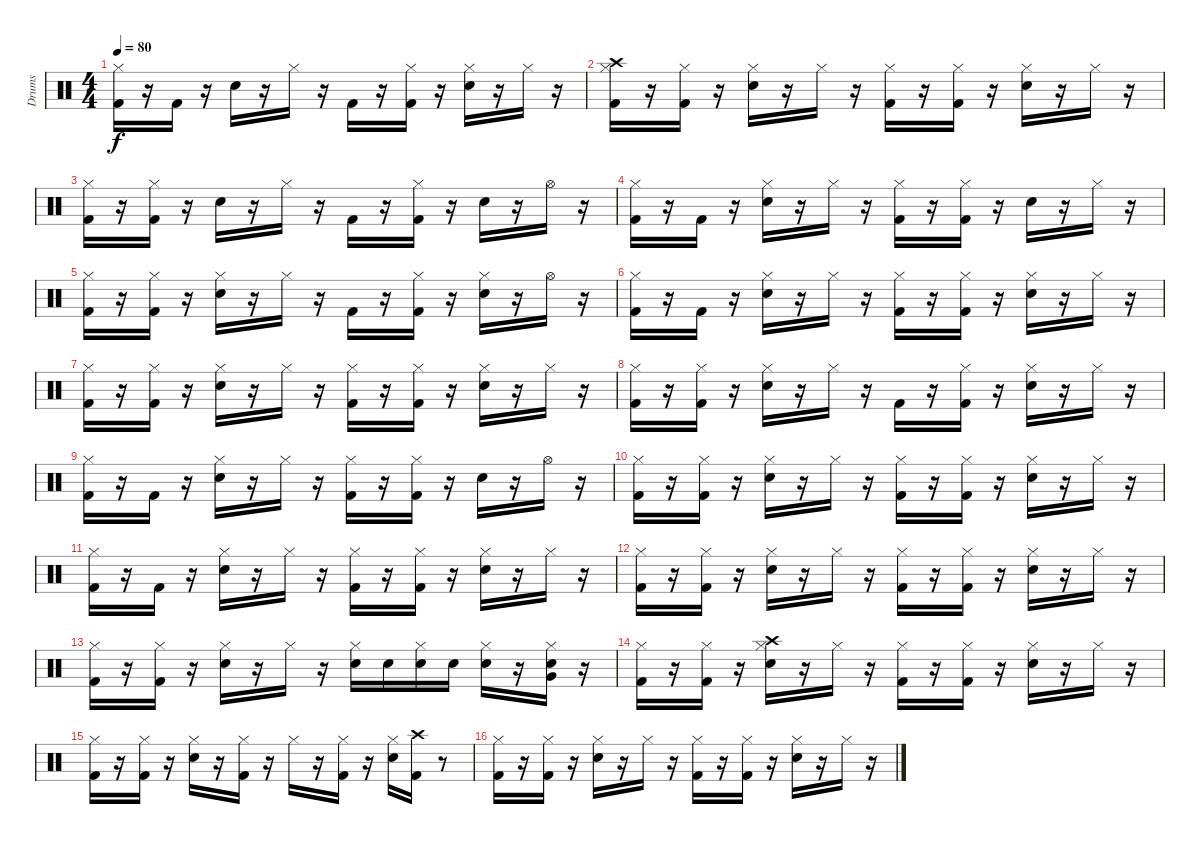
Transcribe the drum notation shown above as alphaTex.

\track ("Drums" "Drums") {instrument percussion}
\staff {score}
\articulation defaults
\ts (4 4)
\tempo 80
\clef neutral
\ks c
("Kick (hit) 2" "Hi-Hat (closed)").16{dy f} r.16 "Kick (hit) 2".16 r.16 "Snare (hit) 2".16 r.16 "Hi-Hat (closed)".16 r.16 "Kick (hit) 2".16 r.16 ("Kick (hit) 2" "Hi-Hat (closed)").16 r.16 ("Snare (hit) 2" "Hi-Hat (closed)").16 r.16 "Hi-Hat (closed)".16 r.16 |
("Kick (hit) 2" "Hi-Hat (closed)" "Crash high (hit)").16 r.16 ("Kick (hit) 2" "Hi-Hat (closed)").16 r.16 ("Snare (hit) 2" "Hi-Hat (closed)").16 r.16 "Hi-Hat (closed)".16 r.16 ("Kick (hit) 2" "Hi-Hat (closed)").16 r.16 ("Kick (hit) 2" "Hi-Hat (closed)").16 r.16 ("Snare (hit) 2" "Hi-Hat (closed)").16 r.16 "Hi-Hat (closed)".16 r.16 |
("Kick (hit) 2" "Hi-Hat (closed)").16 r.16 ("Kick (hit) 2" "Hi-Hat (closed)").16 r.16 "Snare (hit) 2".16 r.16 "Hi-Hat (closed)".16 r.16 "Kick (hit) 2".16 r.16 ("Kick (hit) 2" "Hi-Hat (closed)").16 r.16 "Snare (hit) 2".16 r.16 "Hi-Hat (open)".16 r.16 |
("Kick (hit) 2" "Hi-Hat (closed)").16 r.16 "Kick (hit) 2".16 r.16 ("Snare (hit) 2" "Hi-Hat (closed)").16 r.16 "Hi-Hat (closed)".16 r.16 ("Kick (hit) 2" "Hi-Hat (closed)").16 r.16 ("Kick (hit) 2" "Hi-Hat (closed)").16 r.16 "Snare (hit) 2".16 r.16 "Hi-Hat (closed)".16 r.16 |
("Kick (hit) 2" "Hi-Hat (closed)").16 r.16 ("Kick (hit) 2" "Hi-Hat (closed)").16 r.16 ("Snare (hit) 2" "Hi-Hat (closed)").16 r.16 "Hi-Hat (closed)".16 r.16 "Kick (hit) 2".16 r.16 ("Kick (hit) 2" "Hi-Hat (closed)").16 r.16 ("Snare (hit) 2" "Hi-Hat (closed)").16 r.16 "Hi-Hat (open)".16 r.16 |
("Kick (hit) 2" "Hi-Hat (closed)").16 r.16 "Kick (hit) 2".16 r.16 ("Snare (hit) 2" "Hi-Hat (closed)").16 r.16 "Hi-Hat (closed)".16 r.16 ("Kick (hit) 2" "Hi-Hat (closed)").16 r.16 ("Kick (hit) 2" "Hi-Hat (closed)").16 r.16 ("Snare (hit) 2" "Hi-Hat (closed)").16 r.16 "Hi-Hat (closed)".16 r.16 |
("Kick (hit) 2" "Hi-Hat (closed)").16 r.16 ("Kick (hit) 2" "Hi-Hat (closed)").16 r.16 ("Snare (hit) 2" "Hi-Hat (closed)").16 r.16 "Hi-Hat (closed)".16 r.16 ("Kick (hit) 2" "Hi-Hat (closed)").16 r.16 ("Kick (hit) 2" "Hi-Hat (closed)").16 r.16 ("Snare (hit) 2" "Hi-Hat (closed)").16 r.16 "Hi-Hat (closed)".16 r.16 |
("Kick (hit) 2" "Hi-Hat (closed)").16 r.16 ("Kick (hit) 2" "Hi-Hat (closed)").16 r.16 ("Snare (hit) 2" "Hi-Hat (closed)").16 r.16 "Hi-Hat (closed)".16 r.16 "Kick (hit) 2".16 r.16 ("Kick (hit) 2" "Hi-Hat (closed)").16 r.16 ("Snare (hit) 2" "Hi-Hat (closed)").16 r.16 "Hi-Hat (closed)".16 r.16 |
("Kick (hit) 2" "Hi-Hat (closed)").16 r.16 "Kick (hit) 2".16 r.16 ("Snare (hit) 2" "Hi-Hat (closed)").16 r.16 "Hi-Hat (closed)".16 r.16 ("Kick (hit) 2" "Hi-Hat (closed)").16 r.16 ("Kick (hit) 2" "Hi-Hat (closed)").16 r.16 "Snare (hit) 2".16 r.16 "Hi-Hat (open)".16 r.16 |
("Kick (hit) 2" "Hi-Hat (closed)").16 r.16 ("Kick (hit) 2" "Hi-Hat (closed)").16 r.16 ("Snare (hit) 2" "Hi-Hat (closed)").16 r.16 "Hi-Hat (closed)".16 r.16 ("Kick (hit) 2" "Hi-Hat (closed)").16 r.16 ("Kick (hit) 2" "Hi-Hat (closed)").16 r.16 ("Snare (hit) 2" "Hi-Hat (closed)").16 r.16 "Hi-Hat (closed)".16 r.16 |
("Kick (hit) 2" "Hi-Hat (closed)").16 r.16 "Kick (hit) 2".16 r.16 ("Snare (hit) 2" "Hi-Hat (closed)").16 r.16 "Hi-Hat (closed)".16 r.16 ("Kick (hit) 2" "Hi-Hat (closed)").16 r.16 ("Kick (hit) 2" "Hi-Hat (closed)").16 r.16 ("Snare (hit) 2" "Hi-Hat (closed)").16 r.16 "Hi-Hat (closed)".16 r.16 |
("Kick (hit) 2" "Hi-Hat (closed)").16 r.16 ("Kick (hit) 2" "Hi-Hat (closed)").16 r.16 ("Snare (hit) 2" "Hi-Hat (closed)").16 r.16 "Hi-Hat (closed)".16 r.16 ("Kick (hit) 2" "Hi-Hat (closed)").16 r.16 ("Kick (hit) 2" "Hi-Hat (closed)").16 r.16 ("Snare (hit) 2" "Hi-Hat (closed)").16 r.16 "Hi-Hat (closed)".16 r.16 |
("Kick (hit) 2" "Hi-Hat (closed)").16 r.16 ("Kick (hit) 2" "Hi-Hat (closed)").16 r.16 ("Snare (hit) 2" "Hi-Hat (closed)").16 r.16 "Hi-Hat (closed)".16 r.16 ("Snare (hit) 2" "Hi-Hat (closed)").16 "Snare (hit) 2".16 ("Snare (hit) 2" "Hi-Hat (closed)").16 "Snare (hit) 2".16 ("Snare (hit) 2" "Hi-Hat (closed)").16 r.16 ("Snare (hit) 2" "Hi-Hat (closed)" "Very Low Tom (hit)").16 r.16 |
("Kick (hit) 2" "Hi-Hat (closed)").16 r.16 ("Kick (hit) 2" "Hi-Hat (closed)").16 r.16 ("Snare (hit) 2" "Hi-Hat (closed)" "Crash high (hit)").16 r.16 "Hi-Hat (closed)".16 r.16 ("Kick (hit) 2" "Hi-Hat (closed)").16 r.16 ("Kick (hit) 2" "Hi-Hat (closed)").16 r.16 ("Snare (hit) 2" "Hi-Hat (closed)").16 r.16 "Hi-Hat (closed)".16 r.16 |
("Kick (hit) 2" "Hi-Hat (closed)").16 r.16 ("Kick (hit) 2" "Hi-Hat (closed)").16 r.16 ("Snare (hit) 2" "Hi-Hat (closed)").16 r.16 ("Kick (hit) 2" "Hi-Hat (closed)").16 r.16 "Hi-Hat (closed)".16 r.16 ("Kick (hit) 2" "Hi-Hat (closed)").16 r.16 ("Snare (hit) 2" "Hi-Hat (closed)").16 ("Kick (hit) 2" "Crash high (hit)").16 r.8 |
("Kick (hit) 2" "Hi-Hat (closed)").16 r.16 ("Kick (hit) 2" "Hi-Hat (closed)").16 r.16 ("Snare (hit) 2" "Hi-Hat (closed)").16 r.16 "Hi-Hat (closed)".16 r.16 ("Kick (hit) 2" "Hi-Hat (closed)").16 r.16 ("Kick (hit) 2" "Hi-Hat (closed)").16 r.16 ("Snare (hit) 2" "Hi-Hat (closed)").16 r.16 "Hi-Hat (closed)".16 r.16
